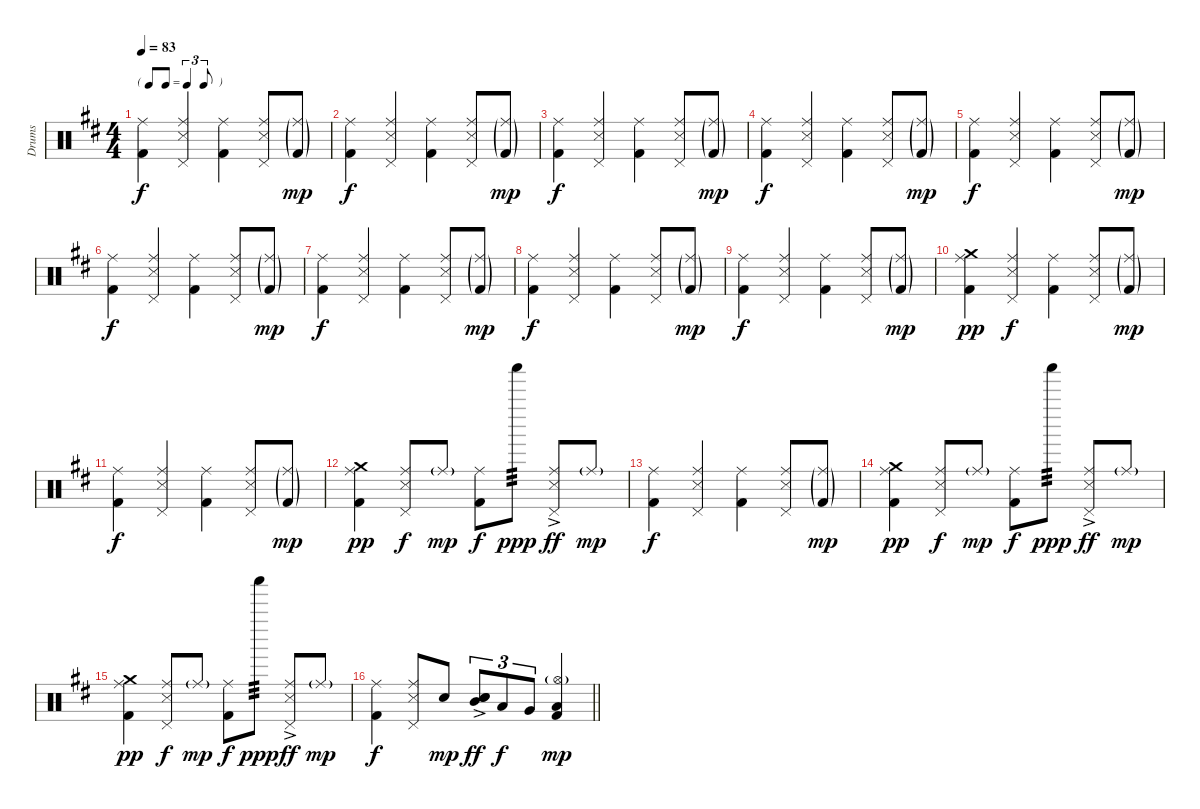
\track ("Drums" "Drums") {instrument percussion}
\staff {score}
\articulation defaults
\ts (4 4)
\tf triplet8th
\tempo 83
\clef neutral
\ks d
("Ride (middle)" "Kick (hit) 2").4{dy f} ("Ride (middle)" "Snare (side stick) 3" "Pedal Hi-Hat (hit)").4 ("Ride (middle)" "Kick (hit) 2").4 ("Ride (middle)" "Snare (side stick) 3" "Pedal Hi-Hat (hit)").8 ("Ride (middle)"{g} "Kick (hit) 2"{g}).8{dy mp} |
("Ride (middle)" "Kick (hit) 2").4{dy f} ("Ride (middle)" "Snare (side stick) 3" "Pedal Hi-Hat (hit)").4 ("Ride (middle)" "Kick (hit) 2").4 ("Ride (middle)" "Snare (side stick) 3" "Pedal Hi-Hat (hit)").8 ("Ride (middle)"{g} "Kick (hit) 2"{g}).8{dy mp} |
("Ride (middle)" "Kick (hit) 2").4{dy f} ("Ride (middle)" "Snare (side stick) 3" "Pedal Hi-Hat (hit)").4 ("Ride (middle)" "Kick (hit) 2").4 ("Ride (middle)" "Snare (side stick) 3" "Pedal Hi-Hat (hit)").8 ("Ride (middle)"{g} "Kick (hit) 2"{g}).8{dy mp} |
("Ride (middle)" "Kick (hit) 2").4{dy f} ("Ride (middle)" "Snare (side stick) 3" "Pedal Hi-Hat (hit)").4 ("Ride (middle)" "Kick (hit) 2").4 ("Ride (middle)" "Snare (side stick) 3" "Pedal Hi-Hat (hit)").8 ("Ride (middle)"{g} "Kick (hit) 2"{g}).8{dy mp} |
("Ride (middle)" "Kick (hit) 2").4{dy f} ("Ride (middle)" "Snare (side stick) 3" "Pedal Hi-Hat (hit)").4 ("Ride (middle)" "Kick (hit) 2").4 ("Ride (middle)" "Snare (side stick) 3" "Pedal Hi-Hat (hit)").8 ("Ride (middle)"{g} "Kick (hit) 2"{g}).8{dy mp} |
("Ride (middle)" "Kick (hit) 2").4{dy f} ("Ride (middle)" "Snare (side stick) 3" "Pedal Hi-Hat (hit)").4 ("Ride (middle)" "Kick (hit) 2").4 ("Ride (middle)" "Snare (side stick) 3" "Pedal Hi-Hat (hit)").8 ("Ride (middle)"{g} "Kick (hit) 2"{g}).8{dy mp} |
("Ride (middle)" "Kick (hit) 2").4{dy f} ("Ride (middle)" "Snare (side stick) 3" "Pedal Hi-Hat (hit)").4 ("Ride (middle)" "Kick (hit) 2").4 ("Ride (middle)" "Snare (side stick) 3" "Pedal Hi-Hat (hit)").8 ("Ride (middle)"{g} "Kick (hit) 2"{g}).8{dy mp} |
("Ride (middle)" "Kick (hit) 2").4{dy f} ("Ride (middle)" "Snare (side stick) 3" "Pedal Hi-Hat (hit)").4 ("Ride (middle)" "Kick (hit) 2").4 ("Ride (middle)" "Snare (side stick) 3" "Pedal Hi-Hat (hit)").8 ("Ride (middle)"{g} "Kick (hit) 2"{g}).8{dy mp} |
("Ride (middle)" "Kick (hit) 2").4{dy f} ("Ride (middle)" "Snare (side stick) 3" "Pedal Hi-Hat (hit)").4 ("Ride (middle)" "Kick (hit) 2").4 ("Ride (middle)" "Snare (side stick) 3" "Pedal Hi-Hat (hit)").8 ("Ride (middle)"{g} "Kick (hit) 2"{g}).8{dy mp} |
("Ride (middle)" "Crash medium (hit)" "Kick (hit) 2").4{dy pp} ("Ride (middle)" "Snare (side stick) 3" "Pedal Hi-Hat (hit)").4{dy f} ("Ride (middle)" "Kick (hit) 2").4 ("Ride (middle)" "Snare (side stick) 3" "Pedal Hi-Hat (hit)").8 ("Ride (middle)"{g} "Kick (hit) 2"{g}).8{dy mp} |
("Ride (middle)" "Kick (hit) 2").4{dy f} ("Ride (middle)" "Snare (side stick) 3" "Pedal Hi-Hat (hit)").4 ("Ride (middle)" "Kick (hit) 2").4 ("Ride (middle)" "Snare (side stick) 3" "Pedal Hi-Hat (hit)").8 ("Ride (middle)"{g} "Kick (hit) 2"{g}).8{dy mp} |
("Ride (middle)" "Crash medium (hit)" "Kick (hit) 2").4{dy pp} ("Ride (middle)" "Snare (side stick) 3" "Pedal Hi-Hat (hit)").8{dy f} "Ride (middle)"{g}.8{dy mp} ("Ride (middle)" "Kick (hit) 2").8{dy f} "Shaker (hit)".8{tp 3 dy ppp} ("Ride (middle)" "Snare (side stick) 3"{ac} "Pedal Hi-Hat (hit)").8{dy ff} "Ride (middle)"{g}.8{dy mp} |
("Ride (middle)" "Kick (hit) 2").4{dy f} ("Ride (middle)" "Snare (side stick) 3" "Pedal Hi-Hat (hit)").4 ("Ride (middle)" "Kick (hit) 2").4 ("Ride (middle)" "Snare (side stick) 3" "Pedal Hi-Hat (hit)").8 ("Ride (middle)"{g} "Kick (hit) 2"{g}).8{dy mp} |
("Ride (middle)" "Crash medium (hit)" "Kick (hit) 2").4{dy pp} ("Ride (middle)" "Snare (side stick) 3" "Pedal Hi-Hat (hit)").8{dy f} "Ride (middle)"{g}.8{dy mp} ("Ride (middle)" "Kick (hit) 2").8{dy f} "Shaker (hit)".8{tp 3 dy ppp} ("Ride (middle)" "Snare (side stick) 3"{ac} "Pedal Hi-Hat (hit)").8{dy ff} "Ride (middle)"{g}.8{dy mp} |
("Ride (middle)" "Crash medium (hit)" "Kick (hit) 2").4{dy pp} ("Ride (middle)" "Snare (side stick) 3" "Pedal Hi-Hat (hit)").8{dy f} "Ride (middle)"{g}.8{dy mp} ("Ride (middle)" "Kick (hit) 2").8{dy f} "Shaker (hit)".8{tp 3 dy ppp} ("Ride (middle)" "Snare (side stick) 3"{ac} "Pedal Hi-Hat (hit)").8{dy ff} "Ride (middle)"{g}.8{dy mp} |
\barLineRight lightlight
("Ride (middle)" "Kick (hit) 2").4{dy f} ("Ride (middle)" "Snare (side stick) 3" "Pedal Hi-Hat (hit)").8 "Snare (hit) 2".8{dy mp} ("Mid Tom (hit)" "Electric Snare (hit)"{ac} "Snare (hit) 2").8{tu (3 2) dy ff} "Low Tom (hit)".8{tu (3 2) dy f} "Very Low Tom (hit)".8{tu (3 2)} ("Hi-Hat (open)"{g} "Low Floor Tom (hit)" "Kick (hit) 2").4{dy mp}
